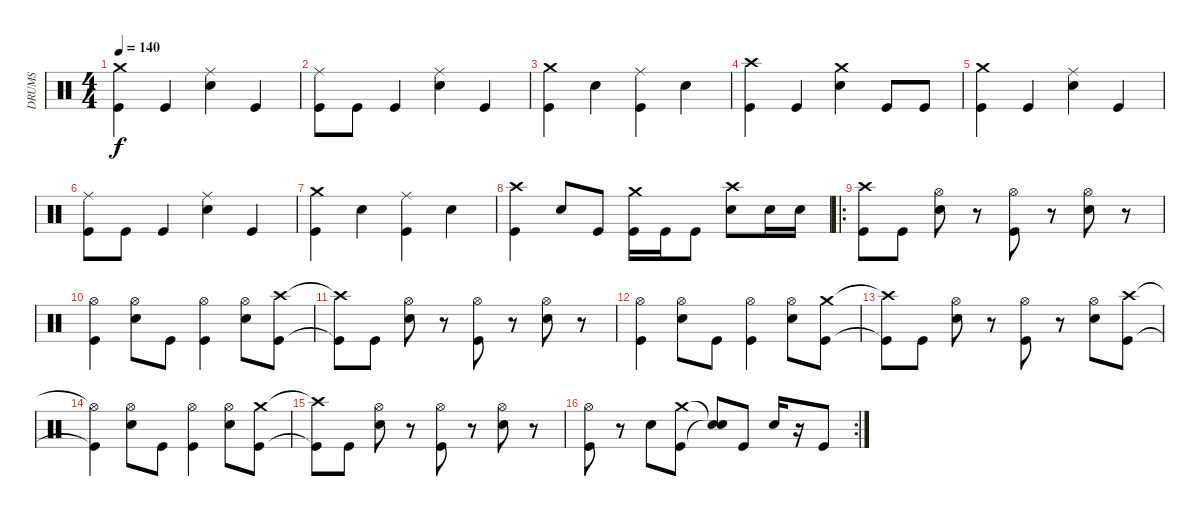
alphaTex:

\track ("DRUMS" "DRUMS") {instrument percussion}
\staff {score}
\articulation defaults
\ts (4 4)
\tempo 140
\clef neutral
\ks c
("Crash medium (hit)" "Kick (hit)").4{dy f} "Kick (hit)".4 ("Ride (middle)" "Electric Snare (hit)").4 "Kick (hit)".4 |
("Ride (middle)" "Kick (hit)").8 "Kick (hit)".8 "Kick (hit)".4 ("Ride (middle)" "Electric Snare (hit)").4 "Kick (hit)".4 |
("Crash medium (hit)" "Kick (hit)").4 "Electric Snare (hit)".4 ("Ride (middle)" "Kick (hit)").4 "Electric Snare (hit)".4 |
("Crash high (hit)" "Kick (hit)").4 "Kick (hit)".4 ("Crash medium (hit)" "Electric Snare (hit)").4 "Kick (hit)".8 "Kick (hit)".8 |
("Crash medium (hit)" "Kick (hit)").4 "Kick (hit)".4 ("Ride (middle)" "Electric Snare (hit)").4 "Kick (hit)".4 |
("Ride (middle)" "Kick (hit)").8 "Kick (hit)".8 "Kick (hit)".4 ("Ride (middle)" "Electric Snare (hit)").4 "Kick (hit)".4 |
("Crash medium (hit)" "Kick (hit)").4 "Electric Snare (hit)".4 ("Ride (middle)" "Kick (hit)").4 "Electric Snare (hit)".4 |
("Crash high (hit)" "Kick (hit)").4 "Electric Snare (hit)".8 "Kick (hit)".8 ("Crash medium (hit)" "Kick (hit)").16 "Kick (hit)".16 "Kick (hit)".8 ("Crash high (hit)" "Electric Snare (hit)").8 "Electric Snare (hit)".16 "Electric Snare (hit)".16 |
\ro
("Crash high (hit)" "Kick (hit)").8 "Kick (hit)".8 ("Hi-Hat (open)" "Electric Snare (hit)").8 r.8 ("Hi-Hat (open)" "Kick (hit)").8 r.8 ("Hi-Hat (open)" "Electric Snare (hit)").8 r.8 |
("Hi-Hat (open)" "Kick (hit)").4 ("Hi-Hat (open)" "Electric Snare (hit)").8 "Kick (hit)".8 ("Hi-Hat (open)" "Kick (hit)").4 ("Hi-Hat (open)" "Electric Snare (hit)").8 ("Crash high (hit)" "Kick (hit)").8 |
("Crash high (hit)"{t} "Kick (hit)"{t}).8 "Kick (hit)".8 ("Hi-Hat (open)" "Electric Snare (hit)").8 r.8 ("Hi-Hat (open)" "Kick (hit)").8 r.8 ("Hi-Hat (open)" "Electric Snare (hit)").8 r.8 |
("Hi-Hat (open)" "Kick (hit)").4 ("Hi-Hat (open)" "Electric Snare (hit)").8 "Kick (hit)".8 ("Hi-Hat (open)" "Kick (hit)").4 ("Hi-Hat (open)" "Electric Snare (hit)").8 ("Crash medium (hit)" "Kick (hit)").8 |
("Crash high (hit)"{t} "Kick (hit)"{t}).8 "Kick (hit)".8 ("Hi-Hat (open)" "Electric Snare (hit)").8 r.8 ("Hi-Hat (open)" "Kick (hit)").8 r.8 ("Hi-Hat (open)" "Electric Snare (hit)").8 ("Crash high (hit)" "Kick (hit)").8 |
("Hi-Hat (open)"{t} "Kick (hit)"{t}).4 ("Hi-Hat (open)" "Electric Snare (hit)").8 "Kick (hit)".8 ("Hi-Hat (open)" "Kick (hit)").4 ("Hi-Hat (open)" "Electric Snare (hit)").8 ("Crash medium (hit)" "Kick (hit)").8 |
("Crash high (hit)"{t} "Kick (hit)"{t}).8 "Kick (hit)".8 ("Hi-Hat (open)" "Electric Snare (hit)").8 r.8 ("Hi-Hat (open)" "Kick (hit)").8 r.8 ("Hi-Hat (open)" "Electric Snare (hit)").8 r.8 |
\rc 2
("Hi-Hat (open)" "Kick (hit)").8 r.8 "Electric Snare (hit)".8 ("Crash medium (hit)" "Kick (hit)").8 ("Snare (hit)"{t} "Snare (hit)"{t}).8 "Kick (hit)".8 "Electric Snare (hit)".16 r.16 "Kick (hit)".8
